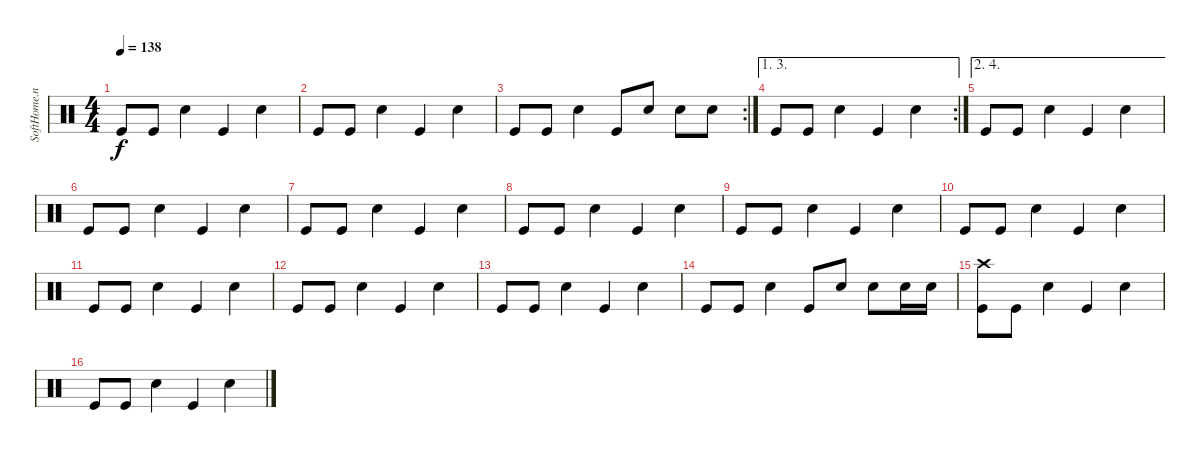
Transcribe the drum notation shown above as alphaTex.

\track ("SoftHome.net" "SoftHome.n") {instrument percussion}
\staff {score}
\articulation defaults
\ts (4 4)
\tempo 138
\clef neutral
\ks c "Kick (hit)".8{dy f} "Kick (hit)".8 "Snare (hit) 2".4 "Kick (hit)".4 "Snare (hit) 2".4
|
"Kick (hit)".8 "Kick (hit)".8 "Snare (hit) 2".4 "Kick (hit)".4 "Snare (hit) 2".4 |
\rc 2 "Kick (hit)".8 "Kick (hit)".8 "Snare (hit) 2".4 "Kick (hit)".8 "Snare (hit) 2".8 "Snare (hit) 2".8 "Snare (hit) 2".8
|
\ae (1 3)
\rc 2 "Kick (hit)".8 "Kick (hit)".8 "Snare (hit) 2".4 "Kick (hit)".4 "Snare (hit) 2".4
|
\ae (2 4)
"Kick (hit)".8 "Kick (hit)".8 "Snare (hit) 2".4 "Kick (hit)".4 "Snare (hit) 2".4 |
"Kick (hit)".8 "Kick (hit)".8 "Snare (hit) 2".4 "Kick (hit)".4 "Snare (hit) 2".4 |
"Kick (hit)".8 "Kick (hit)".8 "Snare (hit) 2".4 "Kick (hit)".4 "Snare (hit) 2".4 |
"Kick (hit)".8 "Kick (hit)".8 "Snare (hit) 2".4 "Kick (hit)".4 "Snare (hit) 2".4 |
"Kick (hit)".8 "Kick (hit)".8 "Snare (hit) 2".4 "Kick (hit)".4 "Snare (hit) 2".4 |
"Kick (hit)".8 "Kick (hit)".8 "Snare (hit) 2".4 "Kick (hit)".4 "Snare (hit) 2".4 |
"Kick (hit)".8 "Kick (hit)".8 "Snare (hit) 2".4 "Kick (hit)".4 "Snare (hit) 2".4 |
"Kick (hit)".8 "Kick (hit)".8 "Snare (hit) 2".4 "Kick (hit)".4 "Snare (hit) 2".4 |
"Kick (hit)".8 "Kick (hit)".8 "Snare (hit) 2".4 "Kick (hit)".4 "Snare (hit) 2".4 |
"Kick (hit)".8 "Kick (hit)".8 "Snare (hit) 2".4 "Kick (hit)".8 "Snare (hit) 2".8 "Snare (hit) 2".8 "Snare (hit) 2".16 "Snare (hit) 2".16 |
("Crash high (hit)" "Kick (hit)").8 "Kick (hit)".8 "Snare (hit) 2".4 "Kick (hit)".4 "Snare (hit) 2".4 |
"Kick (hit)".8 "Kick (hit)".8 "Snare (hit) 2".4 "Kick (hit)".4 "Snare (hit) 2".4
